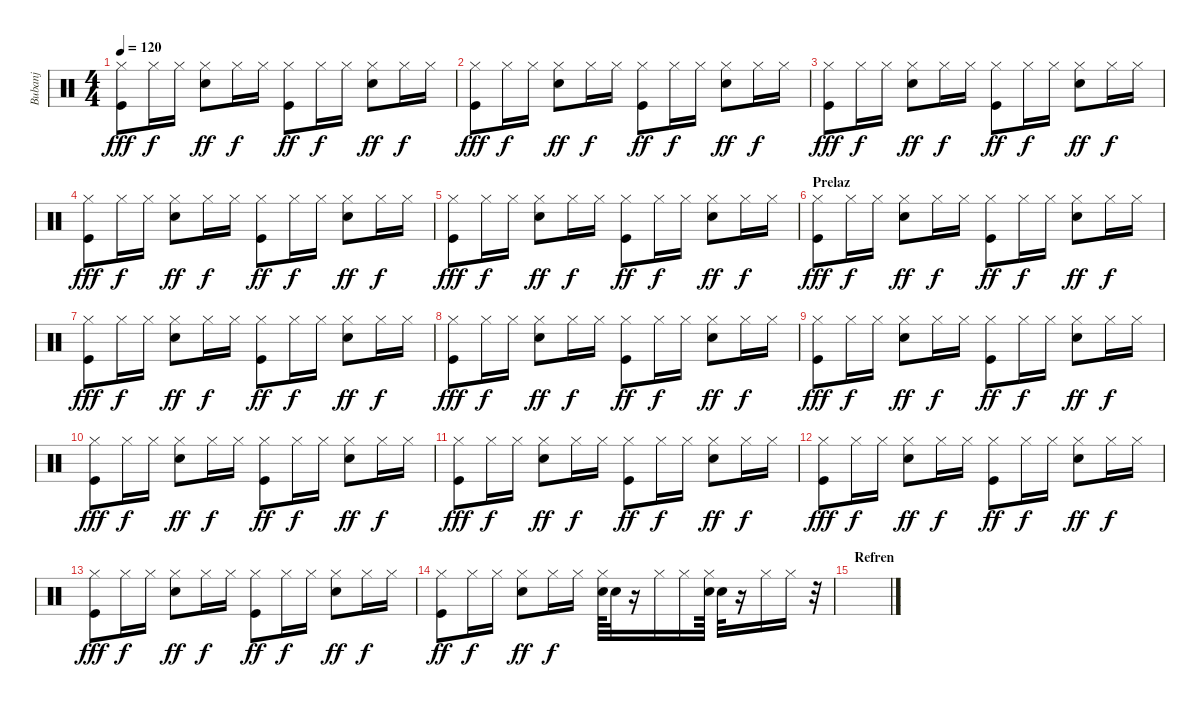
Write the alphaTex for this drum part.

\track ("Bubanj" "Bubanj") {instrument percussion}
\staff {score}
\articulation defaults
\ts (4 4)
\tempo 120
\clef neutral
\ks c
("Kick (hit)" "Hi-Hat (closed)").8{dy fff} "Hi-Hat (closed)".16{dy f} "Hi-Hat (closed)".16 ("Electric Snare (hit)" "Hi-Hat (closed)").8{dy ff} "Hi-Hat (closed)".16{dy f} "Hi-Hat (closed)".16 ("Kick (hit)" "Hi-Hat (closed)").8{dy ff} "Hi-Hat (closed)".16{dy f} "Hi-Hat (closed)".16 ("Electric Snare (hit)" "Hi-Hat (closed)").8{dy ff} "Hi-Hat (closed)".16{dy f} "Hi-Hat (closed)".16 |
("Kick (hit)" "Hi-Hat (closed)").8{dy fff} "Hi-Hat (closed)".16{dy f} "Hi-Hat (closed)".16 ("Electric Snare (hit)" "Hi-Hat (closed)").8{dy ff} "Hi-Hat (closed)".16{dy f} "Hi-Hat (closed)".16 ("Kick (hit)" "Hi-Hat (closed)").8{dy ff} "Hi-Hat (closed)".16{dy f} "Hi-Hat (closed)".16 ("Electric Snare (hit)" "Hi-Hat (closed)").8{dy ff} "Hi-Hat (closed)".16{dy f} "Hi-Hat (closed)".16 |
("Kick (hit)" "Hi-Hat (closed)").8{dy fff} "Hi-Hat (closed)".16{dy f} "Hi-Hat (closed)".16 ("Electric Snare (hit)" "Hi-Hat (closed)").8{dy ff} "Hi-Hat (closed)".16{dy f} "Hi-Hat (closed)".16 ("Kick (hit)" "Hi-Hat (closed)").8{dy ff} "Hi-Hat (closed)".16{dy f} "Hi-Hat (closed)".16 ("Electric Snare (hit)" "Hi-Hat (closed)").8{dy ff} "Hi-Hat (closed)".16{dy f} "Hi-Hat (closed)".16 |
("Kick (hit)" "Hi-Hat (closed)").8{dy fff} "Hi-Hat (closed)".16{dy f} "Hi-Hat (closed)".16 ("Electric Snare (hit)" "Hi-Hat (closed)").8{dy ff} "Hi-Hat (closed)".16{dy f} "Hi-Hat (closed)".16 ("Kick (hit)" "Hi-Hat (closed)").8{dy ff} "Hi-Hat (closed)".16{dy f} "Hi-Hat (closed)".16 ("Electric Snare (hit)" "Hi-Hat (closed)").8{dy ff} "Hi-Hat (closed)".16{dy f} "Hi-Hat (closed)".16 |
("Kick (hit)" "Hi-Hat (closed)").8{dy fff} "Hi-Hat (closed)".16{dy f} "Hi-Hat (closed)".16 ("Electric Snare (hit)" "Hi-Hat (closed)").8{dy ff} "Hi-Hat (closed)".16{dy f} "Hi-Hat (closed)".16 ("Kick (hit)" "Hi-Hat (closed)").8{dy ff} "Hi-Hat (closed)".16{dy f} "Hi-Hat (closed)".16 ("Electric Snare (hit)" "Hi-Hat (closed)").8{dy ff} "Hi-Hat (closed)".16{dy f} "Hi-Hat (closed)".16 |
\section ("" "Prelaz")
("Kick (hit)" "Hi-Hat (closed)").8{dy fff} "Hi-Hat (closed)".16{dy f} "Hi-Hat (closed)".16 ("Electric Snare (hit)" "Hi-Hat (closed)").8{dy ff} "Hi-Hat (closed)".16{dy f} "Hi-Hat (closed)".16 ("Kick (hit)" "Hi-Hat (closed)").8{dy ff} "Hi-Hat (closed)".16{dy f} "Hi-Hat (closed)".16 ("Electric Snare (hit)" "Hi-Hat (closed)").8{dy ff} "Hi-Hat (closed)".16{dy f} "Hi-Hat (closed)".16 |
("Kick (hit)" "Hi-Hat (closed)").8{dy fff} "Hi-Hat (closed)".16{dy f} "Hi-Hat (closed)".16 ("Electric Snare (hit)" "Hi-Hat (closed)").8{dy ff} "Hi-Hat (closed)".16{dy f} "Hi-Hat (closed)".16 ("Kick (hit)" "Hi-Hat (closed)").8{dy ff} "Hi-Hat (closed)".16{dy f} "Hi-Hat (closed)".16 ("Electric Snare (hit)" "Hi-Hat (closed)").8{dy ff} "Hi-Hat (closed)".16{dy f} "Hi-Hat (closed)".16 |
("Kick (hit)" "Hi-Hat (closed)").8{dy fff} "Hi-Hat (closed)".16{dy f} "Hi-Hat (closed)".16 ("Electric Snare (hit)" "Hi-Hat (closed)").8{dy ff} "Hi-Hat (closed)".16{dy f} "Hi-Hat (closed)".16 ("Kick (hit)" "Hi-Hat (closed)").8{dy ff} "Hi-Hat (closed)".16{dy f} "Hi-Hat (closed)".16 ("Electric Snare (hit)" "Hi-Hat (closed)").8{dy ff} "Hi-Hat (closed)".16{dy f} "Hi-Hat (closed)".16 |
("Kick (hit)" "Hi-Hat (closed)").8{dy fff} "Hi-Hat (closed)".16{dy f} "Hi-Hat (closed)".16 ("Electric Snare (hit)" "Hi-Hat (closed)").8{dy ff} "Hi-Hat (closed)".16{dy f} "Hi-Hat (closed)".16 ("Kick (hit)" "Hi-Hat (closed)").8{dy ff} "Hi-Hat (closed)".16{dy f} "Hi-Hat (closed)".16 ("Electric Snare (hit)" "Hi-Hat (closed)").8{dy ff} "Hi-Hat (closed)".16{dy f} "Hi-Hat (closed)".16 |
("Kick (hit)" "Hi-Hat (closed)").8{dy fff} "Hi-Hat (closed)".16{dy f} "Hi-Hat (closed)".16 ("Electric Snare (hit)" "Hi-Hat (closed)").8{dy ff} "Hi-Hat (closed)".16{dy f} "Hi-Hat (closed)".16 ("Kick (hit)" "Hi-Hat (closed)").8{dy ff} "Hi-Hat (closed)".16{dy f} "Hi-Hat (closed)".16 ("Electric Snare (hit)" "Hi-Hat (closed)").8{dy ff} "Hi-Hat (closed)".16{dy f} "Hi-Hat (closed)".16 |
("Kick (hit)" "Hi-Hat (closed)").8{dy fff} "Hi-Hat (closed)".16{dy f} "Hi-Hat (closed)".16 ("Electric Snare (hit)" "Hi-Hat (closed)").8{dy ff} "Hi-Hat (closed)".16{dy f} "Hi-Hat (closed)".16 ("Kick (hit)" "Hi-Hat (closed)").8{dy ff} "Hi-Hat (closed)".16{dy f} "Hi-Hat (closed)".16 ("Electric Snare (hit)" "Hi-Hat (closed)").8{dy ff} "Hi-Hat (closed)".16{dy f} "Hi-Hat (closed)".16 |
("Kick (hit)" "Hi-Hat (closed)").8{dy fff} "Hi-Hat (closed)".16{dy f} "Hi-Hat (closed)".16 ("Electric Snare (hit)" "Hi-Hat (closed)").8{dy ff} "Hi-Hat (closed)".16{dy f} "Hi-Hat (closed)".16 ("Kick (hit)" "Hi-Hat (closed)").8{dy ff} "Hi-Hat (closed)".16{dy f} "Hi-Hat (closed)".16 ("Electric Snare (hit)" "Hi-Hat (closed)").8{dy ff} "Hi-Hat (closed)".16{dy f} "Hi-Hat (closed)".16 |
("Kick (hit)" "Hi-Hat (closed)").8{dy fff} "Hi-Hat (closed)".16{dy f} "Hi-Hat (closed)".16 ("Electric Snare (hit)" "Hi-Hat (closed)").8{dy ff} "Hi-Hat (closed)".16{dy f} "Hi-Hat (closed)".16 ("Kick (hit)" "Hi-Hat (closed)").8{dy ff} "Hi-Hat (closed)".16{dy f} "Hi-Hat (closed)".16 ("Electric Snare (hit)" "Hi-Hat (closed)").8{dy ff} "Hi-Hat (closed)".16{dy f} "Hi-Hat (closed)".16 |
("Kick (hit)" "Hi-Hat (closed)").8{dy ff} "Hi-Hat (closed)".16{dy f} "Hi-Hat (closed)".16 ("Electric Snare (hit)" "Hi-Hat (closed)").8{dy ff} "Hi-Hat (closed)".16{dy f} "Hi-Hat (closed)".16 ("Electric Snare (hit)" "Hi-Hat (closed)").64 "Electric Snare (hit)".32 r.16 "Hi-Hat (closed)".16 "Hi-Hat (closed)".16 ("Electric Snare (hit)" "Hi-Hat (closed)").64 "Electric Snare (hit)".32 r.16 "Hi-Hat (closed)".16 "Hi-Hat (closed)".16 r.32 |
\section ("" "Refren")
